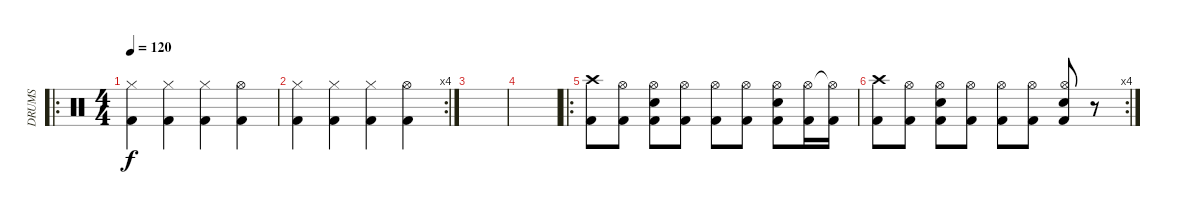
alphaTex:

\track ("DRUMS" "DRUMS") {instrument percussion}
\staff {score}
\articulation defaults
\ro
\ts (4 4)
\tempo 120
\clef neutral
\ks c
("Hi-Hat (closed)" "Kick (hit) 2").4{dy f} ("Hi-Hat (closed)" "Kick (hit) 2").4 ("Hi-Hat (closed)" "Kick (hit) 2").4 ("Hi-Hat (open)" "Kick (hit) 2").4 |
\rc 4
("Hi-Hat (closed)" "Kick (hit) 2").4 ("Hi-Hat (closed)" "Kick (hit) 2").4 ("Hi-Hat (closed)" "Kick (hit) 2").4 ("Hi-Hat (open)" "Kick (hit) 2").4 |
|
|
\ro
("Crash high (hit)" "Kick (hit) 2").8 ("Hi-Hat (open)" "Kick (hit) 2").8 ("Hi-Hat (open)" "Snare (hit) 2" "Kick (hit) 2").8 ("Hi-Hat (open)" "Kick (hit) 2").8 ("Hi-Hat (open)" "Kick (hit) 2").8 ("Hi-Hat (open)" "Kick (hit) 2").8 ("Hi-Hat (open)" "Snare (hit) 2" "Kick (hit) 2").8 ("Hi-Hat (open)" "Kick (hit) 2").16 ("Hi-Hat (open)"{t} "Kick (hit) 2").16 |
\rc 4
("Crash high (hit)" "Kick (hit) 2").8 ("Hi-Hat (open)" "Kick (hit) 2").8 ("Hi-Hat (open)" "Snare (hit) 2" "Kick (hit) 2").8 ("Hi-Hat (open)" "Kick (hit) 2").8 ("Hi-Hat (open)" "Kick (hit) 2").8 ("Hi-Hat (open)" "Kick (hit) 2").8 ("Hi-Hat (open)" "Snare (hit) 2" "Kick (hit) 2").8 r.8
